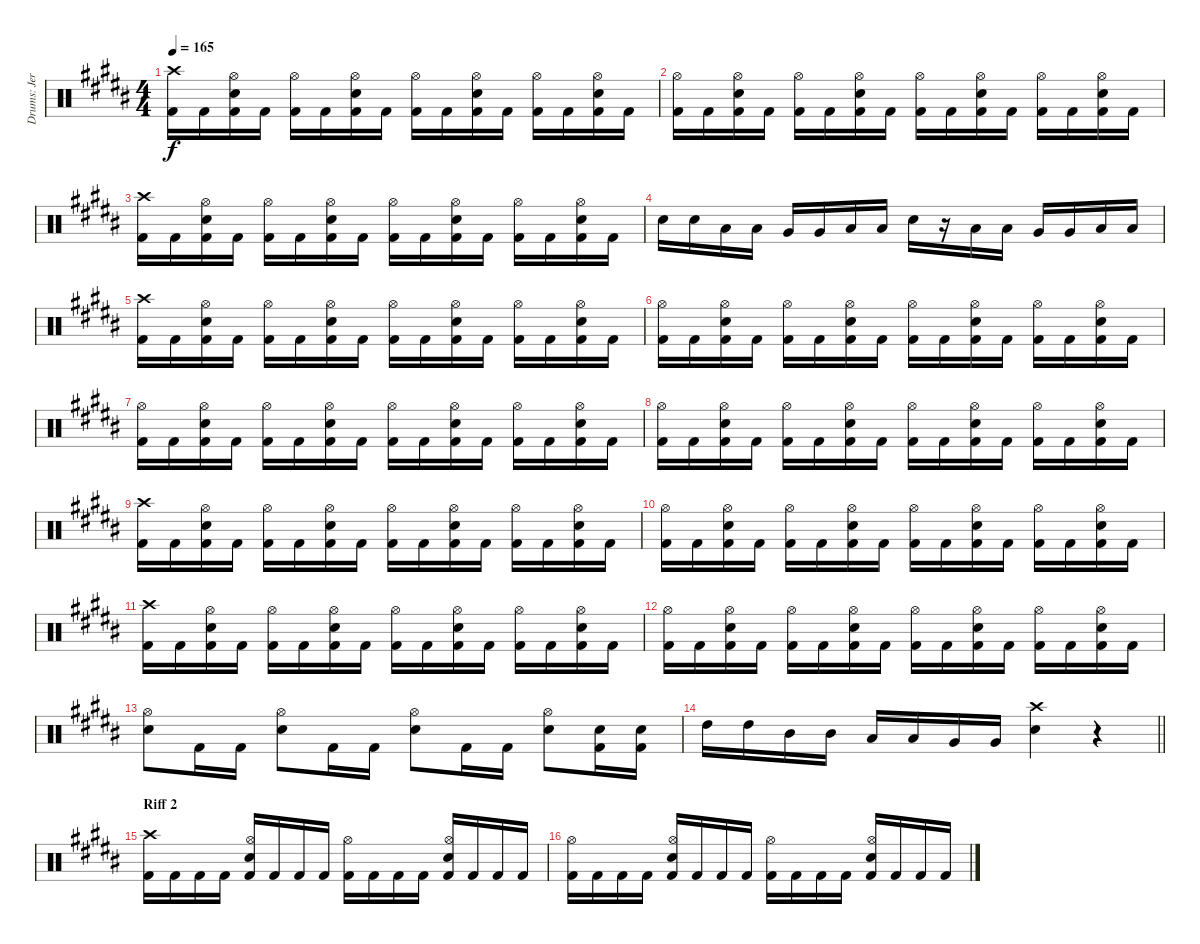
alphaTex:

\track ("Drums: Jere Luokkamäki" "Drums: Jer") {instrument percussion}
\staff {score}
\articulation defaults
\ts (4 4)
\tempo 165
\clef neutral
\ks g#minor
("Crash high (hit)" "Kick (hit) 2").16{dy f} "Kick (hit) 2".16 ("Hi-Hat (open)" "Electric Snare (hit)" "Kick (hit) 2").16 "Kick (hit) 2".16 ("Hi-Hat (open)" "Kick (hit) 2").16 "Kick (hit) 2".16 ("Hi-Hat (open)" "Electric Snare (hit)" "Kick (hit) 2").16 "Kick (hit) 2".16 ("Hi-Hat (open)" "Kick (hit) 2").16 "Kick (hit) 2".16 ("Hi-Hat (open)" "Electric Snare (hit)" "Kick (hit) 2").16 "Kick (hit) 2".16 ("Hi-Hat (open)" "Kick (hit) 2").16 "Kick (hit) 2".16 ("Hi-Hat (open)" "Electric Snare (hit)" "Kick (hit) 2").16 "Kick (hit) 2".16 |
("Hi-Hat (open)" "Kick (hit) 2").16 "Kick (hit) 2".16 ("Hi-Hat (open)" "Electric Snare (hit)" "Kick (hit) 2").16 "Kick (hit) 2".16 ("Hi-Hat (open)" "Kick (hit) 2").16 "Kick (hit) 2".16 ("Hi-Hat (open)" "Electric Snare (hit)" "Kick (hit) 2").16 "Kick (hit) 2".16 ("Hi-Hat (open)" "Kick (hit) 2").16 "Kick (hit) 2".16 ("Hi-Hat (open)" "Electric Snare (hit)" "Kick (hit) 2").16 "Kick (hit) 2".16 ("Hi-Hat (open)" "Kick (hit) 2").16 "Kick (hit) 2".16 ("Hi-Hat (open)" "Electric Snare (hit)" "Kick (hit) 2").16 "Kick (hit) 2".16 |
("Crash high (hit)" "Kick (hit) 2").16 "Kick (hit) 2".16 ("Hi-Hat (open)" "Electric Snare (hit)" "Kick (hit) 2").16 "Kick (hit) 2".16 ("Hi-Hat (open)" "Kick (hit) 2").16 "Kick (hit) 2".16 ("Hi-Hat (open)" "Electric Snare (hit)" "Kick (hit) 2").16 "Kick (hit) 2".16 ("Hi-Hat (open)" "Kick (hit) 2").16 "Kick (hit) 2".16 ("Hi-Hat (open)" "Electric Snare (hit)" "Kick (hit) 2").16 "Kick (hit) 2".16 ("Hi-Hat (open)" "Kick (hit) 2").16 "Kick (hit) 2".16 ("Hi-Hat (open)" "Electric Snare (hit)" "Kick (hit) 2").16 "Kick (hit) 2".16 |
"Electric Snare (hit)".16 "Electric Snare (hit)".16 "Low Tom (hit)".16 "Low Tom (hit)".16 "Very Low Tom (hit)".16 "Very Low Tom (hit)".16 "Low Floor Tom (hit)".16 "Low Floor Tom (hit)".16 "Electric Snare (hit)".16 r.16 "Low Tom (hit)".16 "Low Tom (hit)".16 "Very Low Tom (hit)".16 "Very Low Tom (hit)".16 "Low Floor Tom (hit)".16 "Low Floor Tom (hit)".16 |
("Crash high (hit)" "Kick (hit) 2").16 "Kick (hit) 2".16 ("Hi-Hat (open)" "Electric Snare (hit)" "Kick (hit) 2").16 "Kick (hit) 2".16 ("Hi-Hat (open)" "Kick (hit) 2").16 "Kick (hit) 2".16 ("Hi-Hat (open)" "Electric Snare (hit)" "Kick (hit) 2").16 "Kick (hit) 2".16 ("Hi-Hat (open)" "Kick (hit) 2").16 "Kick (hit) 2".16 ("Hi-Hat (open)" "Electric Snare (hit)" "Kick (hit) 2").16 "Kick (hit) 2".16 ("Hi-Hat (open)" "Kick (hit) 2").16 "Kick (hit) 2".16 ("Hi-Hat (open)" "Electric Snare (hit)" "Kick (hit) 2").16 "Kick (hit) 2".16 |
("Hi-Hat (open)" "Kick (hit) 2").16 "Kick (hit) 2".16 ("Hi-Hat (open)" "Electric Snare (hit)" "Kick (hit) 2").16 "Kick (hit) 2".16 ("Hi-Hat (open)" "Kick (hit) 2").16 "Kick (hit) 2".16 ("Hi-Hat (open)" "Electric Snare (hit)" "Kick (hit) 2").16 "Kick (hit) 2".16 ("Hi-Hat (open)" "Kick (hit) 2").16 "Kick (hit) 2".16 ("Hi-Hat (open)" "Electric Snare (hit)" "Kick (hit) 2").16 "Kick (hit) 2".16 ("Hi-Hat (open)" "Kick (hit) 2").16 "Kick (hit) 2".16 ("Hi-Hat (open)" "Electric Snare (hit)" "Kick (hit) 2").16 "Kick (hit) 2".16 |
("Hi-Hat (open)" "Kick (hit) 2").16 "Kick (hit) 2".16 ("Hi-Hat (open)" "Electric Snare (hit)" "Kick (hit) 2").16 "Kick (hit) 2".16 ("Hi-Hat (open)" "Kick (hit) 2").16 "Kick (hit) 2".16 ("Hi-Hat (open)" "Electric Snare (hit)" "Kick (hit) 2").16 "Kick (hit) 2".16 ("Hi-Hat (open)" "Kick (hit) 2").16 "Kick (hit) 2".16 ("Hi-Hat (open)" "Electric Snare (hit)" "Kick (hit) 2").16 "Kick (hit) 2".16 ("Hi-Hat (open)" "Kick (hit) 2").16 "Kick (hit) 2".16 ("Hi-Hat (open)" "Electric Snare (hit)" "Kick (hit) 2").16 "Kick (hit) 2".16 |
("Hi-Hat (open)" "Kick (hit) 2").16 "Kick (hit) 2".16 ("Hi-Hat (open)" "Electric Snare (hit)" "Kick (hit) 2").16 "Kick (hit) 2".16 ("Hi-Hat (open)" "Kick (hit) 2").16 "Kick (hit) 2".16 ("Hi-Hat (open)" "Electric Snare (hit)" "Kick (hit) 2").16 "Kick (hit) 2".16 ("Hi-Hat (open)" "Kick (hit) 2").16 "Kick (hit) 2".16 ("Hi-Hat (open)" "Electric Snare (hit)" "Kick (hit) 2").16 "Kick (hit) 2".16 ("Hi-Hat (open)" "Kick (hit) 2").16 "Kick (hit) 2".16 ("Hi-Hat (open)" "Electric Snare (hit)" "Kick (hit) 2").16 "Kick (hit) 2".16 |
("Crash high (hit)" "Kick (hit) 2").16 "Kick (hit) 2".16 ("Hi-Hat (open)" "Electric Snare (hit)" "Kick (hit) 2").16 "Kick (hit) 2".16 ("Hi-Hat (open)" "Kick (hit) 2").16 "Kick (hit) 2".16 ("Hi-Hat (open)" "Electric Snare (hit)" "Kick (hit) 2").16 "Kick (hit) 2".16 ("Hi-Hat (open)" "Kick (hit) 2").16 "Kick (hit) 2".16 ("Hi-Hat (open)" "Electric Snare (hit)" "Kick (hit) 2").16 "Kick (hit) 2".16 ("Hi-Hat (open)" "Kick (hit) 2").16 "Kick (hit) 2".16 ("Hi-Hat (open)" "Electric Snare (hit)" "Kick (hit) 2").16 "Kick (hit) 2".16 |
("Hi-Hat (open)" "Kick (hit) 2").16 "Kick (hit) 2".16 ("Hi-Hat (open)" "Electric Snare (hit)" "Kick (hit) 2").16 "Kick (hit) 2".16 ("Hi-Hat (open)" "Kick (hit) 2").16 "Kick (hit) 2".16 ("Hi-Hat (open)" "Electric Snare (hit)" "Kick (hit) 2").16 "Kick (hit) 2".16 ("Hi-Hat (open)" "Kick (hit) 2").16 "Kick (hit) 2".16 ("Hi-Hat (open)" "Electric Snare (hit)" "Kick (hit) 2").16 "Kick (hit) 2".16 ("Hi-Hat (open)" "Kick (hit) 2").16 "Kick (hit) 2".16 ("Hi-Hat (open)" "Electric Snare (hit)" "Kick (hit) 2").16 "Kick (hit) 2".16 |
("Crash high (hit)" "Kick (hit) 2").16 "Kick (hit) 2".16 ("Hi-Hat (open)" "Electric Snare (hit)" "Kick (hit) 2").16 "Kick (hit) 2".16 ("Hi-Hat (open)" "Kick (hit) 2").16 "Kick (hit) 2".16 ("Hi-Hat (open)" "Electric Snare (hit)" "Kick (hit) 2").16 "Kick (hit) 2".16 ("Hi-Hat (open)" "Kick (hit) 2").16 "Kick (hit) 2".16 ("Hi-Hat (open)" "Electric Snare (hit)" "Kick (hit) 2").16 "Kick (hit) 2".16 ("Hi-Hat (open)" "Kick (hit) 2").16 "Kick (hit) 2".16 ("Hi-Hat (open)" "Electric Snare (hit)" "Kick (hit) 2").16 "Kick (hit) 2".16 |
("Hi-Hat (open)" "Kick (hit) 2").16 "Kick (hit) 2".16 ("Hi-Hat (open)" "Electric Snare (hit)" "Kick (hit) 2").16 "Kick (hit) 2".16 ("Hi-Hat (open)" "Kick (hit) 2").16 "Kick (hit) 2".16 ("Hi-Hat (open)" "Electric Snare (hit)" "Kick (hit) 2").16 "Kick (hit) 2".16 ("Hi-Hat (open)" "Kick (hit) 2").16 "Kick (hit) 2".16 ("Hi-Hat (open)" "Electric Snare (hit)" "Kick (hit) 2").16 "Kick (hit) 2".16 ("Hi-Hat (open)" "Kick (hit) 2").16 "Kick (hit) 2".16 ("Hi-Hat (open)" "Electric Snare (hit)" "Kick (hit) 2").16 "Kick (hit) 2".16 |
("Hi-Hat (open)" "Electric Snare (hit)").8 "Kick (hit) 2".16 "Kick (hit) 2".16 ("Hi-Hat (open)" "Electric Snare (hit)").8 "Kick (hit) 2".16 "Kick (hit) 2".16 ("Hi-Hat (open)" "Electric Snare (hit)").8 "Kick (hit) 2".16 "Kick (hit) 2".16 ("Hi-Hat (open)" "Electric Snare (hit)").8 ("Electric Snare (hit)" "Kick (hit) 2").16 ("Electric Snare (hit)" "Kick (hit) 2").16 |
\barLineRight lightlight "High Tom (hit)".16 "High Tom (hit)".16 "Mid Tom (hit)".16 "Mid Tom (hit)".16 "Low Tom (hit)".16 "Low Tom (hit)".16 "Very Low Tom (hit)".16 "Very Low Tom (hit)".16
("Crash high (hit)" "Electric Snare (hit)").4 r.4 |
\section ("" "Riff 2")
("Crash high (hit)" "Kick (hit) 2").16 "Kick (hit) 2".16 "Kick (hit) 2".16 "Kick (hit) 2".16 ("Hi-Hat (open)" "Electric Snare (hit)" "Kick (hit) 2").16 "Kick (hit) 2".16 "Kick (hit) 2".16 "Kick (hit) 2".16 ("Hi-Hat (open)" "Kick (hit) 2").16 "Kick (hit) 2".16 "Kick (hit) 2".16 "Kick (hit) 2".16 ("Hi-Hat (open)" "Electric Snare (hit)" "Kick (hit) 2").16 "Kick (hit) 2".16 "Kick (hit) 2".16 "Kick (hit) 2".16 |
("Hi-Hat (open)" "Kick (hit) 2").16 "Kick (hit) 2".16 "Kick (hit) 2".16 "Kick (hit) 2".16 ("Hi-Hat (open)" "Electric Snare (hit)" "Kick (hit) 2").16 "Kick (hit) 2".16 "Kick (hit) 2".16 "Kick (hit) 2".16 ("Hi-Hat (open)" "Kick (hit) 2").16 "Kick (hit) 2".16 "Kick (hit) 2".16 "Kick (hit) 2".16 ("Hi-Hat (open)" "Electric Snare (hit)" "Kick (hit) 2").16 "Kick (hit) 2".16 "Kick (hit) 2".16 "Kick (hit) 2".16
